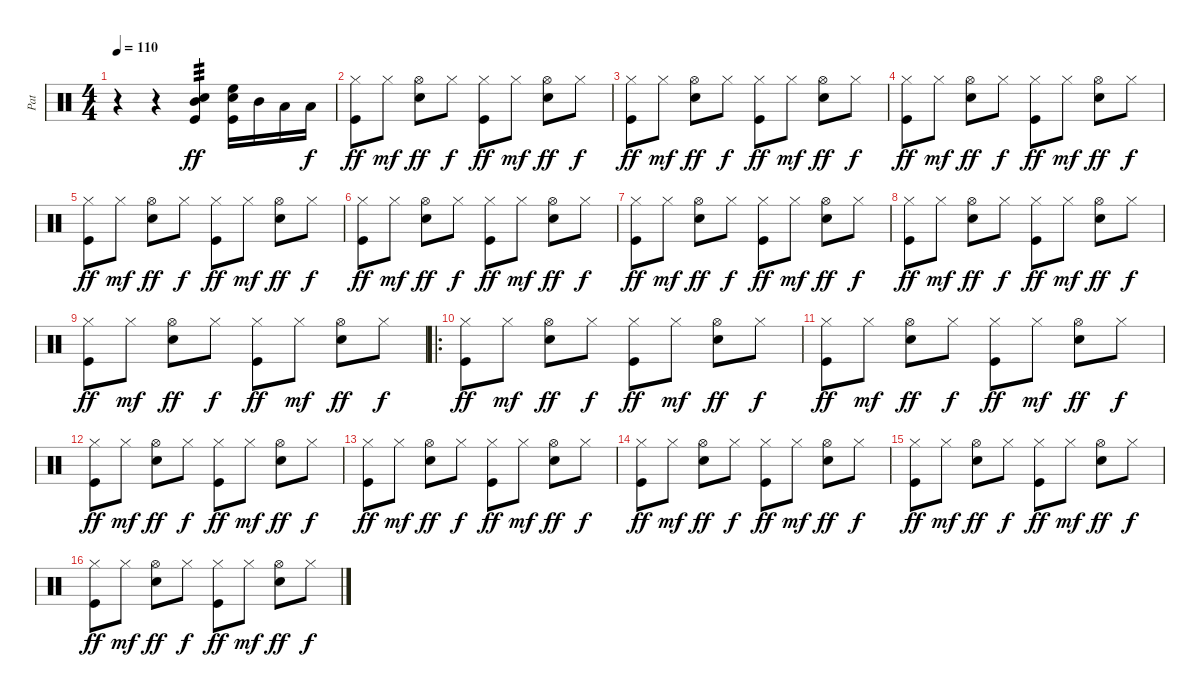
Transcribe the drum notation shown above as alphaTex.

\track ("Pat" "Pat") {instrument percussion}
\staff {score}
\articulation defaults
\ts (4 4)
\tempo 110
\clef neutral
\ks c
r.4{dy ff} r.4 ("Mid Tom (hit)" "Snare (hit) 2" "Kick (hit)").4{tp 3} ("High Floor Tom (hit)" "Snare (hit) 2" "Kick (hit)").16 "Mid Tom (hit)".16 "Low Tom (hit)".16 "Low Floor Tom (hit)".16{dy f} |
("Hi-Hat (closed)" "Kick (hit)").8{dy ff} "Hi-Hat (closed)".8{dy mf} ("Hi-Hat (open)" "Snare (hit) 2").8{dy ff} "Hi-Hat (closed)".8{dy f} ("Hi-Hat (closed)" "Kick (hit)").8{dy ff} "Hi-Hat (closed)".8{dy mf} ("Hi-Hat (open)" "Snare (hit) 2").8{dy ff} "Hi-Hat (closed)".8{dy f} |
("Hi-Hat (closed)" "Kick (hit)").8{dy ff} "Hi-Hat (closed)".8{dy mf} ("Hi-Hat (open)" "Snare (hit) 2").8{dy ff} "Hi-Hat (closed)".8{dy f} ("Hi-Hat (closed)" "Kick (hit)").8{dy ff} "Hi-Hat (closed)".8{dy mf} ("Hi-Hat (open)" "Snare (hit) 2").8{dy ff} "Hi-Hat (closed)".8{dy f} |
("Hi-Hat (closed)" "Kick (hit)").8{dy ff} "Hi-Hat (closed)".8{dy mf} ("Hi-Hat (open)" "Snare (hit) 2").8{dy ff} "Hi-Hat (closed)".8{dy f} ("Hi-Hat (closed)" "Kick (hit)").8{dy ff} "Hi-Hat (closed)".8{dy mf} ("Hi-Hat (open)" "Snare (hit) 2").8{dy ff} "Hi-Hat (closed)".8{dy f} |
("Hi-Hat (closed)" "Kick (hit)").8{dy ff} "Hi-Hat (closed)".8{dy mf} ("Hi-Hat (open)" "Snare (hit) 2").8{dy ff} "Hi-Hat (closed)".8{dy f} ("Hi-Hat (closed)" "Kick (hit)").8{dy ff} "Hi-Hat (closed)".8{dy mf} ("Hi-Hat (open)" "Snare (hit) 2").8{dy ff} "Hi-Hat (closed)".8{dy f} |
("Hi-Hat (closed)" "Kick (hit)").8{dy ff} "Hi-Hat (closed)".8{dy mf} ("Hi-Hat (open)" "Snare (hit) 2").8{dy ff} "Hi-Hat (closed)".8{dy f} ("Hi-Hat (closed)" "Kick (hit)").8{dy ff} "Hi-Hat (closed)".8{dy mf} ("Hi-Hat (open)" "Snare (hit) 2").8{dy ff} "Hi-Hat (closed)".8{dy f} |
("Hi-Hat (closed)" "Kick (hit)").8{dy ff} "Hi-Hat (closed)".8{dy mf} ("Hi-Hat (open)" "Snare (hit) 2").8{dy ff} "Hi-Hat (closed)".8{dy f} ("Hi-Hat (closed)" "Kick (hit)").8{dy ff} "Hi-Hat (closed)".8{dy mf} ("Hi-Hat (open)" "Snare (hit) 2").8{dy ff} "Hi-Hat (closed)".8{dy f} |
("Hi-Hat (closed)" "Kick (hit)").8{dy ff} "Hi-Hat (closed)".8{dy mf} ("Hi-Hat (open)" "Snare (hit) 2").8{dy ff} "Hi-Hat (closed)".8{dy f} ("Hi-Hat (closed)" "Kick (hit)").8{dy ff} "Hi-Hat (closed)".8{dy mf} ("Hi-Hat (open)" "Snare (hit) 2").8{dy ff} "Hi-Hat (closed)".8{dy f} |
("Hi-Hat (closed)" "Kick (hit)").8{dy ff} "Hi-Hat (closed)".8{dy mf} ("Hi-Hat (open)" "Snare (hit) 2").8{dy ff} "Hi-Hat (closed)".8{dy f} ("Hi-Hat (closed)" "Kick (hit)").8{dy ff} "Hi-Hat (closed)".8{dy mf} ("Hi-Hat (open)" "Snare (hit) 2").8{dy ff} "Hi-Hat (closed)".8{dy f} |
\ro
("Hi-Hat (closed)" "Kick (hit)").8{dy ff} "Hi-Hat (closed)".8{dy mf} ("Hi-Hat (open)" "Snare (hit) 2").8{dy ff} "Hi-Hat (closed)".8{dy f} ("Hi-Hat (closed)" "Kick (hit)").8{dy ff} "Hi-Hat (closed)".8{dy mf} ("Hi-Hat (open)" "Snare (hit) 2").8{dy ff} "Hi-Hat (closed)".8{dy f} |
("Hi-Hat (closed)" "Kick (hit)").8{dy ff} "Hi-Hat (closed)".8{dy mf} ("Hi-Hat (open)" "Snare (hit) 2").8{dy ff} "Hi-Hat (closed)".8{dy f} ("Hi-Hat (closed)" "Kick (hit)").8{dy ff} "Hi-Hat (closed)".8{dy mf} ("Hi-Hat (open)" "Snare (hit) 2").8{dy ff} "Hi-Hat (closed)".8{dy f} |
("Hi-Hat (closed)" "Kick (hit)").8{dy ff} "Hi-Hat (closed)".8{dy mf} ("Hi-Hat (open)" "Snare (hit) 2").8{dy ff} "Hi-Hat (closed)".8{dy f} ("Hi-Hat (closed)" "Kick (hit)").8{dy ff} "Hi-Hat (closed)".8{dy mf} ("Hi-Hat (open)" "Snare (hit) 2").8{dy ff} "Hi-Hat (closed)".8{dy f} |
("Hi-Hat (closed)" "Kick (hit)").8{dy ff} "Hi-Hat (closed)".8{dy mf} ("Hi-Hat (open)" "Snare (hit) 2").8{dy ff} "Hi-Hat (closed)".8{dy f} ("Hi-Hat (closed)" "Kick (hit)").8{dy ff} "Hi-Hat (closed)".8{dy mf} ("Hi-Hat (open)" "Snare (hit) 2").8{dy ff} "Hi-Hat (closed)".8{dy f} |
("Hi-Hat (closed)" "Kick (hit)").8{dy ff} "Hi-Hat (closed)".8{dy mf} ("Hi-Hat (open)" "Snare (hit) 2").8{dy ff} "Hi-Hat (closed)".8{dy f} ("Hi-Hat (closed)" "Kick (hit)").8{dy ff} "Hi-Hat (closed)".8{dy mf} ("Hi-Hat (open)" "Snare (hit) 2").8{dy ff} "Hi-Hat (closed)".8{dy f} |
("Hi-Hat (closed)" "Kick (hit)").8{dy ff} "Hi-Hat (closed)".8{dy mf} ("Hi-Hat (open)" "Snare (hit) 2").8{dy ff} "Hi-Hat (closed)".8{dy f} ("Hi-Hat (closed)" "Kick (hit)").8{dy ff} "Hi-Hat (closed)".8{dy mf} ("Hi-Hat (open)" "Snare (hit) 2").8{dy ff} "Hi-Hat (closed)".8{dy f} |
("Hi-Hat (closed)" "Kick (hit)").8{dy ff} "Hi-Hat (closed)".8{dy mf} ("Hi-Hat (open)" "Snare (hit) 2").8{dy ff} "Hi-Hat (closed)".8{dy f} ("Hi-Hat (closed)" "Kick (hit)").8{dy ff} "Hi-Hat (closed)".8{dy mf} ("Hi-Hat (open)" "Snare (hit) 2").8{dy ff} "Hi-Hat (closed)".8{dy f}
